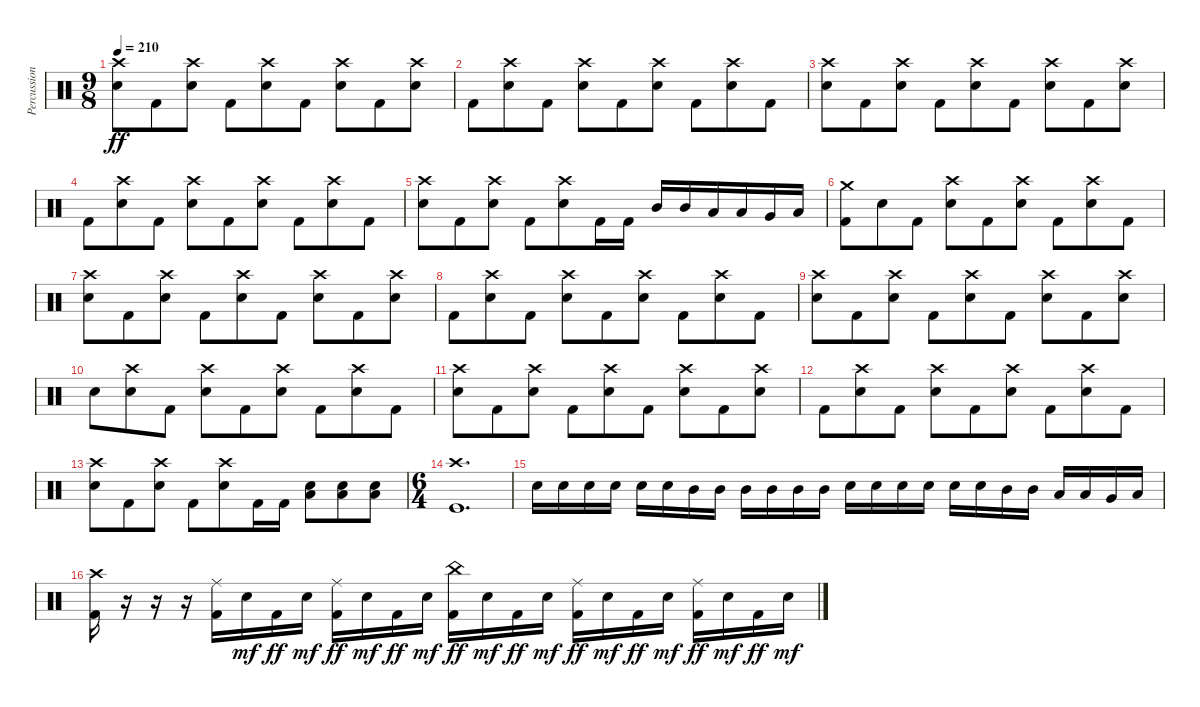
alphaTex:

\track ("Percussion" "Percussion") {instrument percussion}
\staff {score}
\articulation defaults
\ts (9 8)
\tempo 210
\clef neutral
\ks c
("Crash high (hit)" "Electric Snare (hit)").8{dy ff} "Kick (hit) 2".8 ("Crash high (hit)" "Electric Snare (hit)").8 "Kick (hit) 2".8 ("Crash high (hit)" "Electric Snare (hit)").8 "Kick (hit) 2".8 ("Crash high (hit)" "Electric Snare (hit)").8 "Kick (hit) 2".8 ("Crash high (hit)" "Electric Snare (hit)").8 |
"Kick (hit) 2".8 ("Crash high (hit)" "Electric Snare (hit)").8 "Kick (hit) 2".8 ("Crash high (hit)" "Electric Snare (hit)").8 "Kick (hit) 2".8 ("Crash high (hit)" "Electric Snare (hit)").8 "Kick (hit) 2".8 ("Crash high (hit)" "Electric Snare (hit)").8 "Kick (hit) 2".8 |
("Crash high (hit)" "Electric Snare (hit)").8 "Kick (hit) 2".8 ("Crash high (hit)" "Electric Snare (hit)").8 "Kick (hit) 2".8 ("Crash high (hit)" "Electric Snare (hit)").8 "Kick (hit) 2".8 ("Crash high (hit)" "Electric Snare (hit)").8 "Kick (hit) 2".8 ("Crash high (hit)" "Electric Snare (hit)").8 |
"Kick (hit) 2".8 ("Crash high (hit)" "Electric Snare (hit)").8 "Kick (hit) 2".8 ("Crash high (hit)" "Electric Snare (hit)").8 "Kick (hit) 2".8 ("Crash high (hit)" "Electric Snare (hit)").8 "Kick (hit) 2".8 ("Crash high (hit)" "Electric Snare (hit)").8 "Kick (hit) 2".8 |
("Crash high (hit)" "Electric Snare (hit)").8 "Kick (hit) 2".8 ("Crash high (hit)" "Electric Snare (hit)").8 "Kick (hit) 2".8 ("Crash high (hit)" "Electric Snare (hit)").8 "Kick (hit) 2".16 "Kick (hit) 2".16 "Mid Tom (hit)".16 "Mid Tom (hit)".16 "Low Tom (hit)".16 "Low Tom (hit)".16 "Very Low Tom (hit)".16 "Low Floor Tom (hit)".16 |
("Crash medium (hit)" "Kick (hit) 2").8 "Electric Snare (hit)".8 "Kick (hit) 2".8 ("Crash high (hit)" "Electric Snare (hit)").8 "Kick (hit) 2".8 ("Crash high (hit)" "Electric Snare (hit)").8 "Kick (hit) 2".8 ("Crash high (hit)" "Electric Snare (hit)").8 "Kick (hit) 2".8 |
("Crash high (hit)" "Electric Snare (hit)").8 "Kick (hit) 2".8 ("Crash high (hit)" "Electric Snare (hit)").8 "Kick (hit) 2".8 ("Crash high (hit)" "Electric Snare (hit)").8 "Kick (hit) 2".8 ("Crash high (hit)" "Electric Snare (hit)").8 "Kick (hit) 2".8 ("Crash high (hit)" "Electric Snare (hit)").8 |
"Kick (hit) 2".8 ("Crash high (hit)" "Electric Snare (hit)").8 "Kick (hit) 2".8 ("Crash high (hit)" "Electric Snare (hit)").8 "Kick (hit) 2".8 ("Crash high (hit)" "Electric Snare (hit)").8 "Kick (hit) 2".8 ("Crash high (hit)" "Electric Snare (hit)").8 "Kick (hit) 2".8 |
("Crash high (hit)" "Electric Snare (hit)").8 "Kick (hit) 2".8 ("Crash high (hit)" "Electric Snare (hit)").8 "Kick (hit) 2".8 ("Crash high (hit)" "Electric Snare (hit)").8 "Kick (hit) 2".8 ("Crash high (hit)" "Electric Snare (hit)").8 "Kick (hit) 2".8 ("Crash high (hit)" "Electric Snare (hit)").8 |
"Electric Snare (hit)".8 ("Crash high (hit)" "Electric Snare (hit)").8 "Kick (hit) 2".8 ("Crash high (hit)" "Electric Snare (hit)").8 "Kick (hit) 2".8 ("Crash high (hit)" "Electric Snare (hit)").8 "Kick (hit) 2".8 ("Crash high (hit)" "Electric Snare (hit)").8 "Kick (hit) 2".8 |
("Crash high (hit)" "Electric Snare (hit)").8 "Kick (hit) 2".8 ("Crash high (hit)" "Electric Snare (hit)").8 "Kick (hit) 2".8 ("Crash high (hit)" "Electric Snare (hit)").8 "Kick (hit) 2".8 ("Crash high (hit)" "Electric Snare (hit)").8 "Kick (hit) 2".8 ("Crash high (hit)" "Electric Snare (hit)").8 |
"Kick (hit) 2".8 ("Crash high (hit)" "Electric Snare (hit)").8 "Kick (hit) 2".8 ("Crash high (hit)" "Electric Snare (hit)").8 "Kick (hit) 2".8 ("Crash high (hit)" "Electric Snare (hit)").8 "Kick (hit) 2".8 ("Crash high (hit)" "Electric Snare (hit)").8 "Kick (hit) 2".8 |
("Crash high (hit)" "Electric Snare (hit)").8 "Kick (hit) 2".8 ("Crash high (hit)" "Electric Snare (hit)").8 "Kick (hit) 2".8 ("Crash high (hit)" "Electric Snare (hit)").8 "Kick (hit) 2".16 "Kick (hit) 2".16 ("Low Floor Tom (hit)" "Electric Snare (hit)").8 ("Low Floor Tom (hit)" "Electric Snare (hit)").8 ("Low Floor Tom (hit)" "Electric Snare (hit)").8 |
\ts (6 4)
("Crash high (hit)" "Kick (hit)").1{d} |
"Electric Snare (hit)".16 "Electric Snare (hit)".16 "Electric Snare (hit)".16 "Electric Snare (hit)".16 "Electric Snare (hit)".16 "Electric Snare (hit)".16 "Mid Tom (hit)".16 "Mid Tom (hit)".16 "Mid Tom (hit)".16 "Mid Tom (hit)".16 "Mid Tom (hit)".16 "Mid Tom (hit)".16 "Electric Snare (hit)".16 "Electric Snare (hit)".16 "Electric Snare (hit)".16 "Electric Snare (hit)".16 "Electric Snare (hit)".16 "Electric Snare (hit)".16 "Mid Tom (hit)".16 "Mid Tom (hit)".16 "Low Tom (hit)".16 "Low Tom (hit)".16 "Very Low Tom (hit)".16 "Low Floor Tom (hit)".16 |
("Crash high (hit)" "Kick (hit) 2").16 r.16 r.16 r.16 ("Ride (middle)" "Kick (hit) 2").16 "Electric Snare (hit)".16{dy mf} "Kick (hit) 2".16{dy ff} "Electric Snare (hit)".16{dy mf} ("Ride (middle)" "Kick (hit) 2").16{dy ff} "Electric Snare (hit)".16{dy mf} "Kick (hit) 2".16{dy ff} "Electric Snare (hit)".16{dy mf} ("China (hit)" "Kick (hit) 2").16{dy ff} "Electric Snare (hit)".16{dy mf} "Kick (hit) 2".16{dy ff} "Electric Snare (hit)".16{dy mf} ("Ride (middle)" "Kick (hit) 2").16{dy ff} "Electric Snare (hit)".16{dy mf} "Kick (hit) 2".16{dy ff} "Electric Snare (hit)".16{dy mf} ("Ride (middle)" "Kick (hit) 2").16{dy ff} "Electric Snare (hit)".16{dy mf} "Kick (hit) 2".16{dy ff} "Electric Snare (hit)".16{dy mf}
